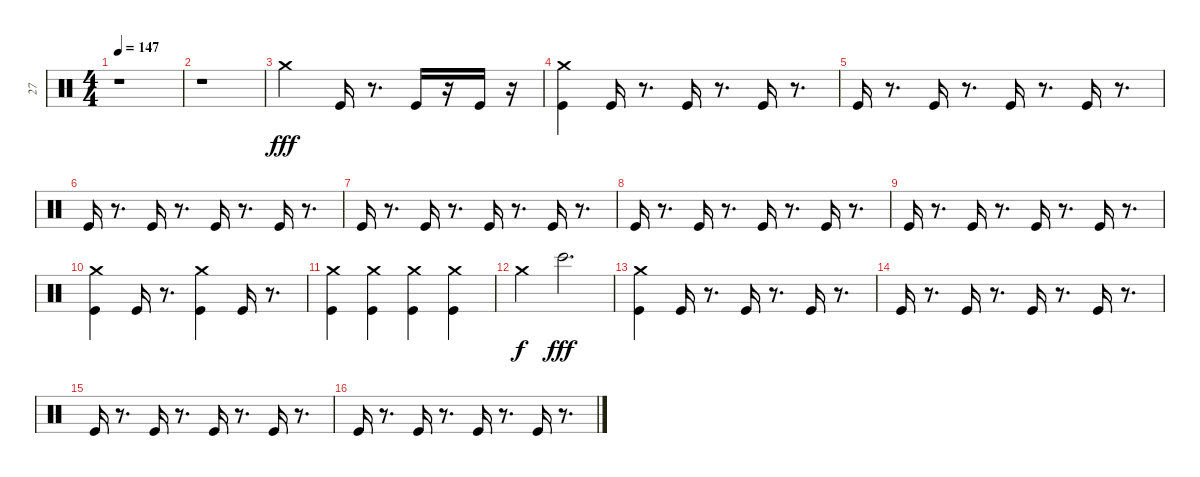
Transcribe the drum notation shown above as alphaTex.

\track ("27" "27") {instrument percussion}
\staff {score}
\articulation defaults
\ts (4 4)
\tempo 147
\clef neutral
\ks c
r.1{dy fff} |
r.1 |
"Crash medium (hit)".2 "Kick (hit)".16 r.8{d} "Kick (hit)".16 r.16 "Kick (hit)".16 r.16 |
("Kick (hit)" "Crash medium (hit)").4 "Kick (hit)".16 r.8{d} "Kick (hit)".16 r.8{d} "Kick (hit)".16 r.8{d} |
"Kick (hit)".16 r.8{d} "Kick (hit)".16 r.8{d} "Kick (hit)".16 r.8{d} "Kick (hit)".16 r.8{d} |
"Kick (hit)".16 r.8{d} "Kick (hit)".16 r.8{d} "Kick (hit)".16 r.8{d} "Kick (hit)".16 r.8{d} |
"Kick (hit)".16 r.8{d} "Kick (hit)".16 r.8{d} "Kick (hit)".16 r.8{d} "Kick (hit)".16 r.8{d} |
"Kick (hit)".16 r.8{d} "Kick (hit)".16 r.8{d} "Kick (hit)".16 r.8{d} "Kick (hit)".16 r.8{d} |
"Kick (hit)".16 r.8{d} "Kick (hit)".16 r.8{d} "Kick (hit)".16 r.8{d} "Kick (hit)".16 r.8{d} |
("Kick (hit)" "Crash medium (hit)").4 "Kick (hit)".16 r.8{d} ("Crash medium (hit)" "Kick (hit)").4 "Kick (hit)".16 r.8{d} |
("Crash medium (hit)" "Kick (hit)").4 ("Crash medium (hit)" "Kick (hit)").4 ("Crash medium (hit)" "Kick (hit)").4 ("Crash medium (hit)" "Kick (hit)").4 |
"Crash medium (hit)".4{dy f} "Bongo High (hit)".2{d dy fff} |
("Crash medium (hit)" "Kick (hit)").4 "Kick (hit)".16 r.8{d} "Kick (hit)".16 r.8{d} "Kick (hit)".16 r.8{d} |
"Kick (hit)".16 r.8{d} "Kick (hit)".16 r.8{d} "Kick (hit)".16 r.8{d} "Kick (hit)".16 r.8{d} |
"Kick (hit)".16 r.8{d} "Kick (hit)".16 r.8{d} "Kick (hit)".16 r.8{d} "Kick (hit)".16 r.8{d} |
"Kick (hit)".16 r.8{d} "Kick (hit)".16 r.8{d} "Kick (hit)".16 r.8{d} "Kick (hit)".16 r.8{d}
